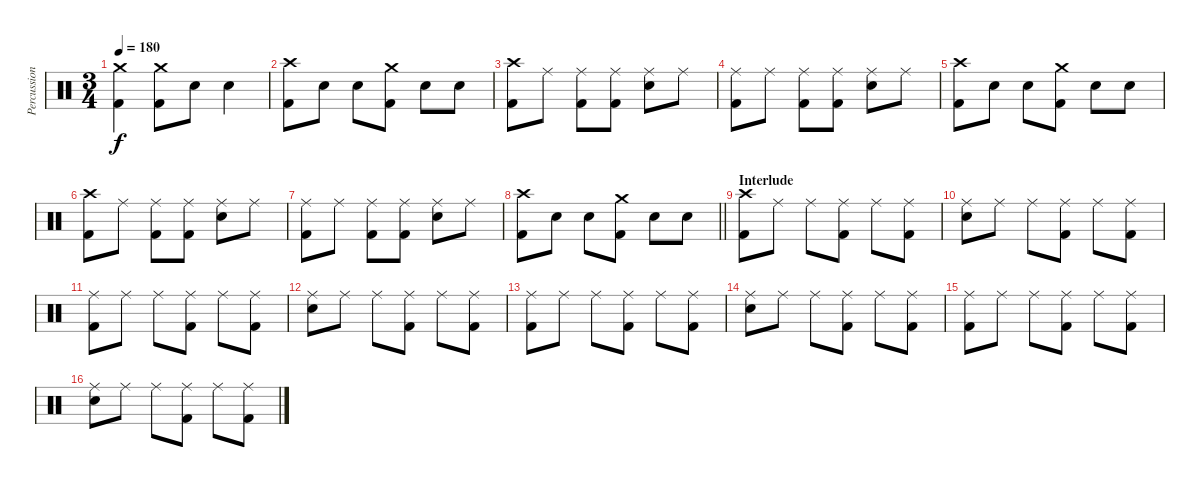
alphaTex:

\track ("Percussion" "Percussion") {instrument percussion}
\staff {score}
\articulation defaults
\ts (3 4)
\tempo 180
\clef neutral
\ks c
("Crash medium (hit)" "Kick (hit) 2").4{dy f} ("Crash medium (hit)" "Kick (hit) 2").8 "Electric Snare (hit)".8 "Electric Snare (hit)".4 |
("Crash high (hit)" "Kick (hit) 2").8 "Electric Snare (hit)".8 "Electric Snare (hit)".8 ("Crash medium (hit)" "Kick (hit) 2").8 "Electric Snare (hit)".8 "Electric Snare (hit)".8 |
("Crash high (hit)" "Kick (hit) 2").8 "Ride (middle)".8 ("Ride (middle)" "Kick (hit) 2").8 ("Ride (middle)" "Kick (hit) 2").8 ("Ride (middle)" "Electric Snare (hit)").8 "Ride (middle)".8 |
("Ride (middle)" "Kick (hit) 2").8 "Ride (middle)".8 ("Ride (middle)" "Kick (hit) 2").8 ("Ride (middle)" "Kick (hit) 2").8 ("Ride (middle)" "Electric Snare (hit)").8 "Ride (middle)".8 |
("Crash high (hit)" "Kick (hit) 2").8 "Electric Snare (hit)".8 "Electric Snare (hit)".8 ("Crash medium (hit)" "Kick (hit) 2").8 "Electric Snare (hit)".8 "Electric Snare (hit)".8 |
("Crash high (hit)" "Kick (hit) 2").8 "Ride (middle)".8 ("Ride (middle)" "Kick (hit) 2").8 ("Ride (middle)" "Kick (hit) 2").8 ("Ride (middle)" "Electric Snare (hit)").8 "Ride (middle)".8 |
("Ride (middle)" "Kick (hit) 2").8 "Ride (middle)".8 ("Ride (middle)" "Kick (hit) 2").8 ("Ride (middle)" "Kick (hit) 2").8 ("Ride (middle)" "Electric Snare (hit)").8 "Ride (middle)".8 |
\barLineRight lightlight
("Crash high (hit)" "Kick (hit) 2").8 "Electric Snare (hit)".8 "Electric Snare (hit)".8 ("Crash medium (hit)" "Kick (hit) 2").8 "Electric Snare (hit)".8 "Electric Snare (hit)".8 |
\section ("" "Interlude")
("Crash high (hit)" "Kick (hit) 2").8 "Ride (middle)".8 "Ride (middle)".8 ("Ride (middle)" "Kick (hit) 2").8 "Ride (middle)".8 ("Ride (middle)" "Kick (hit) 2").8 |
("Ride (middle)" "Electric Snare (hit)").8 "Ride (middle)".8 "Ride (middle)".8 ("Ride (middle)" "Kick (hit) 2").8 "Ride (middle)".8 ("Ride (middle)" "Kick (hit) 2").8 |
("Ride (middle)" "Kick (hit) 2").8 "Ride (middle)".8 "Ride (middle)".8 ("Ride (middle)" "Kick (hit) 2").8 "Ride (middle)".8 ("Ride (middle)" "Kick (hit) 2").8 |
("Ride (middle)" "Electric Snare (hit)").8 "Ride (middle)".8 "Ride (middle)".8 ("Ride (middle)" "Kick (hit) 2").8 "Ride (middle)".8 ("Ride (middle)" "Kick (hit) 2").8 |
("Ride (middle)" "Kick (hit) 2").8 "Ride (middle)".8 "Ride (middle)".8 ("Ride (middle)" "Kick (hit) 2").8 "Ride (middle)".8 ("Ride (middle)" "Kick (hit) 2").8 |
("Ride (middle)" "Electric Snare (hit)").8 "Ride (middle)".8 "Ride (middle)".8 ("Ride (middle)" "Kick (hit) 2").8 "Ride (middle)".8 ("Ride (middle)" "Kick (hit) 2").8 |
("Ride (middle)" "Kick (hit) 2").8 "Ride (middle)".8 "Ride (middle)".8 ("Ride (middle)" "Kick (hit) 2").8 "Ride (middle)".8 ("Ride (middle)" "Kick (hit) 2").8 |
("Ride (middle)" "Electric Snare (hit)").8 "Ride (middle)".8 "Ride (middle)".8 ("Ride (middle)" "Kick (hit) 2").8 "Ride (middle)".8 ("Ride (middle)" "Kick (hit) 2").8
